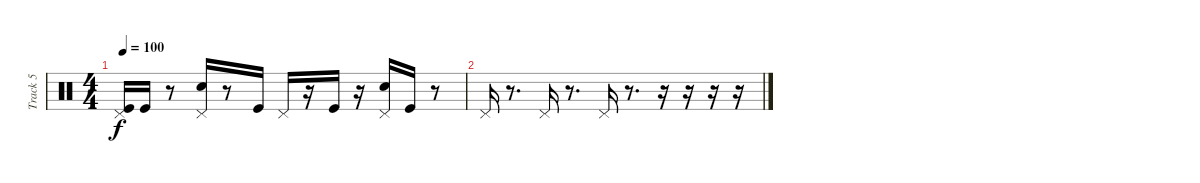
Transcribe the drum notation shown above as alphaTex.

\track ("Track 5" "Track 5") {instrument percussion}
\staff {score}
\articulation defaults
\ts (4 4)
\tempo 100
\clef neutral
\ks c
("Kick (hit)" "Pedal Hi-Hat (hit)").16{dy f} "Kick (hit)".16 r.8 ("Snare (hit) 2" "Pedal Hi-Hat (hit)").16 r.8 "Kick (hit)".16 "Pedal Hi-Hat (hit)".16 r.16 "Kick (hit)".16 r.16 ("Snare (hit) 2" "Pedal Hi-Hat (hit)").16 "Kick (hit)".16 r.8 |
"Pedal Hi-Hat (hit)".16 r.8{d} "Pedal Hi-Hat (hit)".16 r.8{d} "Pedal Hi-Hat (hit)".16 r.8{d} r.16 r.16 r.16 r.16
